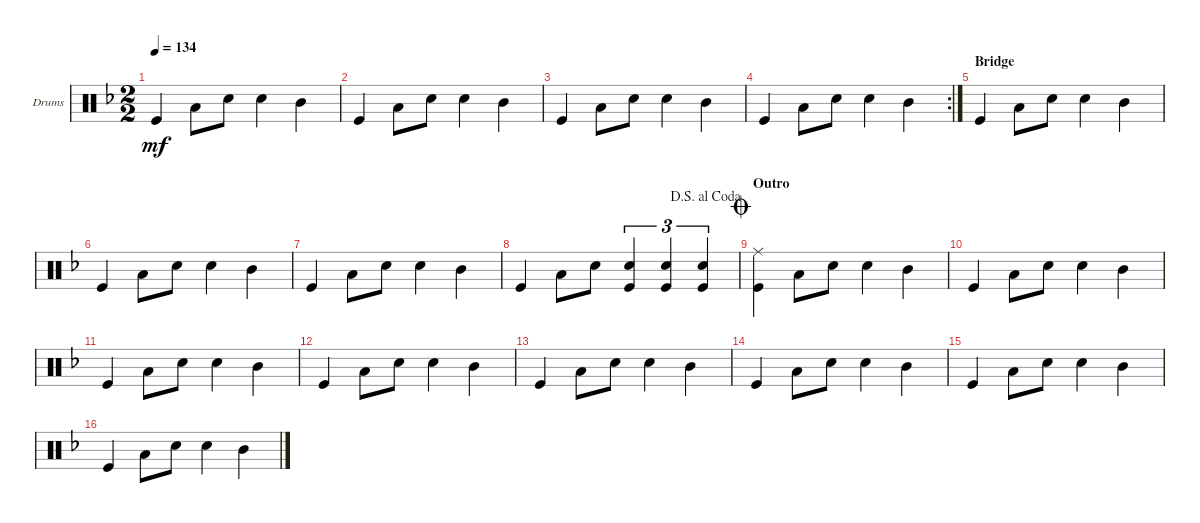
\bracketExtendMode groupsimilarinstruments
\useSystemSignSeparator
\multiTrackTrackNamePolicy allsystems
\firstSystemTrackNameOrientation horizontal
\otherSystemsTrackNameOrientation horizontal
\track ("Drumkit" "Drums") {instrument percussion}
\staff {score}
\articulation defaults
\ts (2 2)
\scale
0.5
\tempo 134
\accidentals auto
\clef neutral
\ottava regular
\simile none
\ks f "Kick (hit)".4{dy mf} "Low Tom (hit)".8 "Snare (hit) 2".8 "Snare (hit) 2".4 "Mid Tom (hit)".4
|
\scale
0.5 "Kick (hit)".4 "Low Tom (hit)".8 "Snare (hit) 2".8 "Snare (hit) 2".4 "Mid Tom (hit)".4 |
\scale
0.38961 "Kick (hit)".4 "Low Tom (hit)".8 "Snare (hit) 2".8 "Snare (hit) 2".4 "Mid Tom (hit)".4 |
\rc 2
\scale
0.61039 "Kick (hit)".4 "Low Tom (hit)".8 "Snare (hit) 2".8 "Snare (hit) 2".4 "Mid Tom (hit)".4 |
\section ("" "Bridge")
\scale
0.5 "Kick (hit)".4 "Low Tom (hit)".8 "Snare (hit) 2".8 "Snare (hit) 2".4 "Mid Tom (hit)".4 |
\scale
0.5 "Kick (hit)".4 "Low Tom (hit)".8 "Snare (hit) 2".8 "Snare (hit) 2".4 "Mid Tom (hit)".4 |
\scale
0.416667 "Kick (hit)".4 "Low Tom (hit)".8 "Snare (hit) 2".8 "Snare (hit) 2".4 "Mid Tom (hit)".4 |
\scale
0.583333
\jump dalsegnoalcoda "Kick (hit)".4 "Low Tom (hit)".8 "Snare (hit) 2".8
("Snare (hit) 2" "Kick (hit)").4{tu (3 2)} ("Snare (hit) 2" "Kick (hit)").4{tu (3 2)} ("Snare (hit) 2" "Kick (hit)").4{tu (3 2)} |
\section ("" "Outro")
\scale
0.5
\jump coda
("Kick (hit)" "Ride (middle)").4 "Low Tom (hit)".8 "Snare (hit) 2".8 "Snare (hit) 2".4 "Mid Tom (hit)".4 |
\scale
0.5 "Kick (hit)".4 "Low Tom (hit)".8 "Snare (hit) 2".8 "Snare (hit) 2".4 "Mid Tom (hit)".4 |
\scale
0.38961 "Kick (hit)".4 "Low Tom (hit)".8 "Snare (hit) 2".8 "Snare (hit) 2".4 "Mid Tom (hit)".4 |
\scale
0.61039 "Kick (hit)".4 "Low Tom (hit)".8 "Snare (hit) 2".8 "Snare (hit) 2".4 "Mid Tom (hit)".4 |
\scale
0.5 "Kick (hit)".4 "Low Tom (hit)".8 "Snare (hit) 2".8 "Snare (hit) 2".4 "Mid Tom (hit)".4 |
\scale
0.5 "Kick (hit)".4 "Low Tom (hit)".8 "Snare (hit) 2".8 "Snare (hit) 2".4 "Mid Tom (hit)".4 |
\scale
0.5 "Kick (hit)".4 "Low Tom (hit)".8 "Snare (hit) 2".8 "Snare (hit) 2".4 "Mid Tom (hit)".4 |
\scale
0.5 "Kick (hit)".4 "Low Tom (hit)".8 "Snare (hit) 2".8 "Snare (hit) 2".4 "Mid Tom (hit)".4
